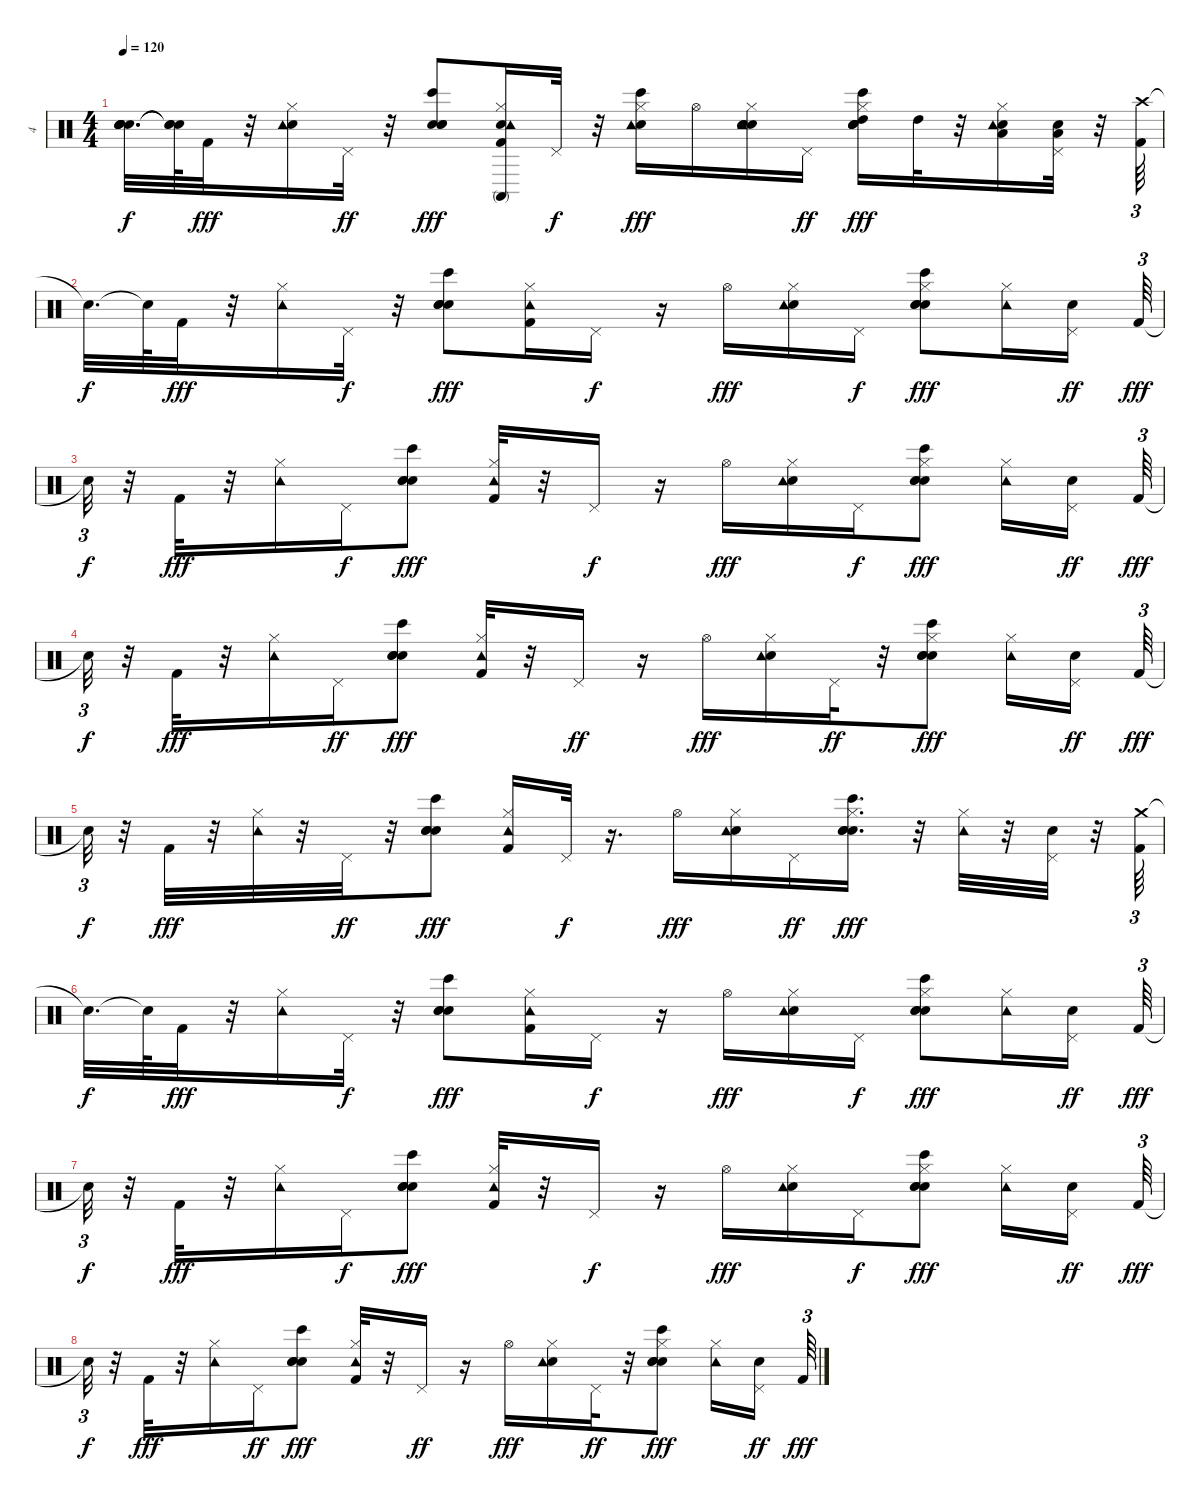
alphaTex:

\track ("4" "4") {instrument percussion}
\staff {score}
\articulation defaults
\ts (4 4)
\tempo 120
\clef neutral
\ks c
("Snare (hit)"{t} "Snare (hit)"{t} "Snare (hit)"{t} "Snare (hit)"{t} "Snare (hit)"{t}).32{d dy f} ("Snare (hit)"{t} "Snare (hit)"{t} "Snare (hit)"{t}).64 "Kick (hit) 2".32{dy fff} r.32 ("Hi-Hat (closed)" "Hand Clap (hit)" "Tambourine (hit)").16 "Pedal Hi-Hat (hit)".32{dy ff} r.32 ("Snare (hit) 2" "Hand Clap (hit)" "Electric Snare (hit)" "Bongo High (hit)").8{dy fff} ("Hi-Hat (closed)" "Hand Clap (hit)" "Kick (hit) 2" "Tambourine (hit)" "Conga high (mute)").16 "Pedal Hi-Hat (hit)".32{dy f} r.32 ("Hand Clap (hit)" "Tambourine (hit)" "Hi-Hat (closed)" "Bongo High (hit)").16{dy fff} "Hi-Hat (open)".16 ("Snare (hit) 2" "Hi-Hat (closed)" "Hand Clap (hit)" "Electric Snare (hit)" "Tambourine (hit)").16 "Pedal Hi-Hat (hit)".16{dy ff} ("Snare (hit) 2" "Hand Clap (hit)" "High Tom (hit)" "Electric Snare (hit)" "Hi-Hat (closed)" "Bongo High (hit)").16{dy fff} "High Tom (hit)".32 r.32 ("Hi-Hat (closed)" "Hand Clap (hit)" "Low Tom (hit)" "Tambourine (hit)").16 ("Pedal Hi-Hat (hit)" "Snare (hit) 2" "Low Tom (hit)").32 r.32 ("Crash high (hit)" "Kick (hit) 2").64{tu (3 2)} |
"Snare (hit)"{t}.32{d dy f} "Snare (hit)"{t}.64 "Kick (hit) 2".32{dy fff} r.32 ("Hi-Hat (closed)" "Tambourine (hit)").16 "Pedal Hi-Hat (hit)".32{dy f} r.32 ("Snare (hit) 2" "Bongo High (hit)" "Hand Clap (hit)" "Electric Snare (hit)").8{dy fff} ("Hi-Hat (closed)" "Tambourine (hit)" "Kick (hit) 2").16 "Pedal Hi-Hat (hit)".16{dy f} r.16 "Hi-Hat (open)".16{dy fff} ("Hi-Hat (closed)" "Snare (hit) 2" "Tambourine (hit)").16 "Pedal Hi-Hat (hit)".16{dy f} ("Snare (hit) 2" "Hi-Hat (closed)" "Hand Clap (hit)" "Bongo High (hit)" "Electric Snare (hit)").8{dy fff} ("Hi-Hat (closed)" "Tambourine (hit)").16 ("Pedal Hi-Hat (hit)" "Snare (hit) 2").16{dy ff} "Kick (hit) 2".64{tu (3 2) dy fff} |
"Snare (hit)"{t}.32{tu (3 2) dy f} r.32 "Kick (hit) 2".32{dy fff} r.32 ("Hi-Hat (closed)" "Tambourine (hit)").16 "Pedal Hi-Hat (hit)".16{dy f} ("Snare (hit) 2" "Electric Snare (hit)" "Bongo High (hit)" "Hand Clap (hit)").8{dy fff} ("Hi-Hat (closed)" "Kick (hit) 2" "Tambourine (hit)").32 r.32 "Pedal Hi-Hat (hit)".16{dy f} r.16 "Hi-Hat (open)".16{dy fff} ("Snare (hit) 2" "Hi-Hat (closed)" "Tambourine (hit)").16 "Pedal Hi-Hat (hit)".16{dy f} ("Snare (hit) 2" "Hand Clap (hit)" "Hi-Hat (closed)" "Bongo High (hit)" "Electric Snare (hit)").8{dy fff} ("Hi-Hat (closed)" "Tambourine (hit)").16 ("Pedal Hi-Hat (hit)" "Snare (hit) 2").16{dy ff beam splitsecondary} "Kick (hit) 2".64{tu (3 2) dy fff} |
"Snare (hit)"{t}.32{tu (3 2) dy f} r.32 "Kick (hit) 2".32{dy fff} r.32 ("Hi-Hat (closed)" "Tambourine (hit)").16 "Pedal Hi-Hat (hit)".16{dy ff} ("Snare (hit) 2" "Electric Snare (hit)" "Bongo High (hit)" "Hand Clap (hit)").8{dy fff} ("Hi-Hat (closed)" "Kick (hit) 2" "Tambourine (hit)").32 r.32 "Pedal Hi-Hat (hit)".16{dy ff} r.16 "Hi-Hat (open)".16{dy fff} ("Snare (hit) 2" "Hi-Hat (closed)" "Tambourine (hit)").16 "Pedal Hi-Hat (hit)".32{dy ff} r.32 ("Snare (hit) 2" "Electric Snare (hit)" "Hi-Hat (closed)" "Hand Clap (hit)" "Bongo High (hit)").8{dy fff} ("Hi-Hat (closed)" "Tambourine (hit)").16 ("Pedal Hi-Hat (hit)" "Snare (hit) 2").16{dy ff beam splitsecondary} "Kick (hit) 2".64{tu (3 2) dy fff} |
"Snare (hit)"{t}.32{tu (3 2) dy f} r.32 "Kick (hit) 2".32{dy fff} r.32 ("Hi-Hat (closed)" "Tambourine (hit)").32 r.32 "Pedal Hi-Hat (hit)".32{dy ff} r.32 ("Snare (hit) 2" "Electric Snare (hit)" "Bongo High (hit)" "Hand Clap (hit)").8{dy fff} ("Hi-Hat (closed)" "Kick (hit) 2" "Tambourine (hit)").16 "Pedal Hi-Hat (hit)".32{dy f} r.16{d} "Hi-Hat (open)".16{dy fff} ("Snare (hit) 2" "Hi-Hat (closed)" "Tambourine (hit)").16 "Pedal Hi-Hat (hit)".16{dy ff} ("Snare (hit) 2" "Electric Snare (hit)" "Hand Clap (hit)" "Hi-Hat (closed)" "Bongo High (hit)").16{d dy fff} r.32 ("Hi-Hat (closed)" "Tambourine (hit)").32 r.32 ("Pedal Hi-Hat (hit)" "Snare (hit) 2").32 r.32 ("Crash medium (hit)" "Kick (hit) 2").64{tu (3 2)} |
"Snare (hit)"{t}.32{d dy f} "Snare (hit)"{t}.64 "Kick (hit) 2".32{dy fff} r.32 ("Hi-Hat (closed)" "Tambourine (hit)").16 "Pedal Hi-Hat (hit)".32{dy f} r.32 ("Snare (hit) 2" "Bongo High (hit)" "Hand Clap (hit)" "Electric Snare (hit)").8{dy fff} ("Hi-Hat (closed)" "Tambourine (hit)" "Kick (hit) 2").16 "Pedal Hi-Hat (hit)".16{dy f} r.16 "Hi-Hat (open)".16{dy fff} ("Hi-Hat (closed)" "Snare (hit) 2" "Tambourine (hit)").16 "Pedal Hi-Hat (hit)".16{dy f} ("Snare (hit) 2" "Hi-Hat (closed)" "Hand Clap (hit)" "Bongo High (hit)" "Electric Snare (hit)").8{dy fff} ("Hi-Hat (closed)" "Tambourine (hit)").16 ("Pedal Hi-Hat (hit)" "Snare (hit) 2").16{dy ff} "Kick (hit) 2".64{tu (3 2) dy fff} |
"Snare (hit)"{t}.32{tu (3 2) dy f} r.32 "Kick (hit) 2".32{dy fff} r.32 ("Hi-Hat (closed)" "Tambourine (hit)").16 "Pedal Hi-Hat (hit)".16{dy f} ("Snare (hit) 2" "Electric Snare (hit)" "Bongo High (hit)" "Hand Clap (hit)").8{dy fff} ("Hi-Hat (closed)" "Kick (hit) 2" "Tambourine (hit)").32 r.32 "Pedal Hi-Hat (hit)".16{dy f} r.16 "Hi-Hat (open)".16{dy fff} ("Snare (hit) 2" "Hi-Hat (closed)" "Tambourine (hit)").16 "Pedal Hi-Hat (hit)".16{dy f} ("Snare (hit) 2" "Hand Clap (hit)" "Hi-Hat (closed)" "Bongo High (hit)" "Electric Snare (hit)").8{dy fff} ("Hi-Hat (closed)" "Tambourine (hit)").16 ("Pedal Hi-Hat (hit)" "Snare (hit) 2").16{dy ff beam splitsecondary} "Kick (hit) 2".64{tu (3 2) dy fff} |
"Snare (hit)"{t}.32{tu (3 2) dy f} r.32 "Kick (hit) 2".32{dy fff} r.32 ("Hi-Hat (closed)" "Tambourine (hit)").16 "Pedal Hi-Hat (hit)".16{dy ff} ("Snare (hit) 2" "Electric Snare (hit)" "Bongo High (hit)" "Hand Clap (hit)").8{dy fff} ("Hi-Hat (closed)" "Kick (hit) 2" "Tambourine (hit)").32 r.32 "Pedal Hi-Hat (hit)".16{dy ff} r.16 "Hi-Hat (open)".16{dy fff} ("Snare (hit) 2" "Hi-Hat (closed)" "Tambourine (hit)").16 "Pedal Hi-Hat (hit)".32{dy ff} r.32 ("Snare (hit) 2" "Electric Snare (hit)" "Hi-Hat (closed)" "Hand Clap (hit)" "Bongo High (hit)").8{dy fff} ("Hi-Hat (closed)" "Tambourine (hit)").16 ("Pedal Hi-Hat (hit)" "Snare (hit) 2").16{dy ff beam splitsecondary} "Kick (hit) 2".64{tu (3 2) dy fff}
